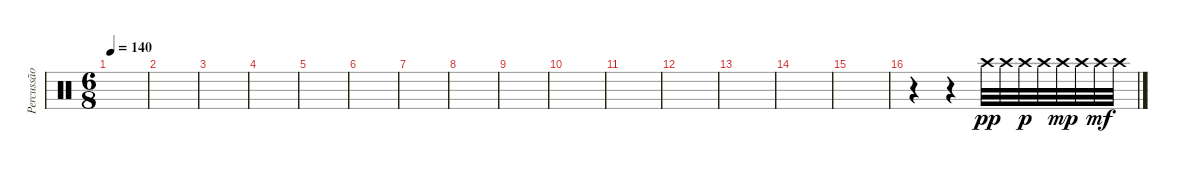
\track ("Percussão" "Percussão") {instrument percussion}
\staff {score}
\articulation defaults
\ts (6 8)
\tempo 140
\clef neutral
\ks c
|
|
|
|
|
|
|
|
|
|
|
|
|
|
|
r.4 r.4 "Crash high (hit)".32{dy pp} "Crash high (hit)".32 "Crash high (hit)".32{dy p} "Crash high (hit)".32 "Crash high (hit)".32{dy mp} "Crash high (hit)".32 "Crash high (hit)".32{dy mf} "Crash high (hit)".32
